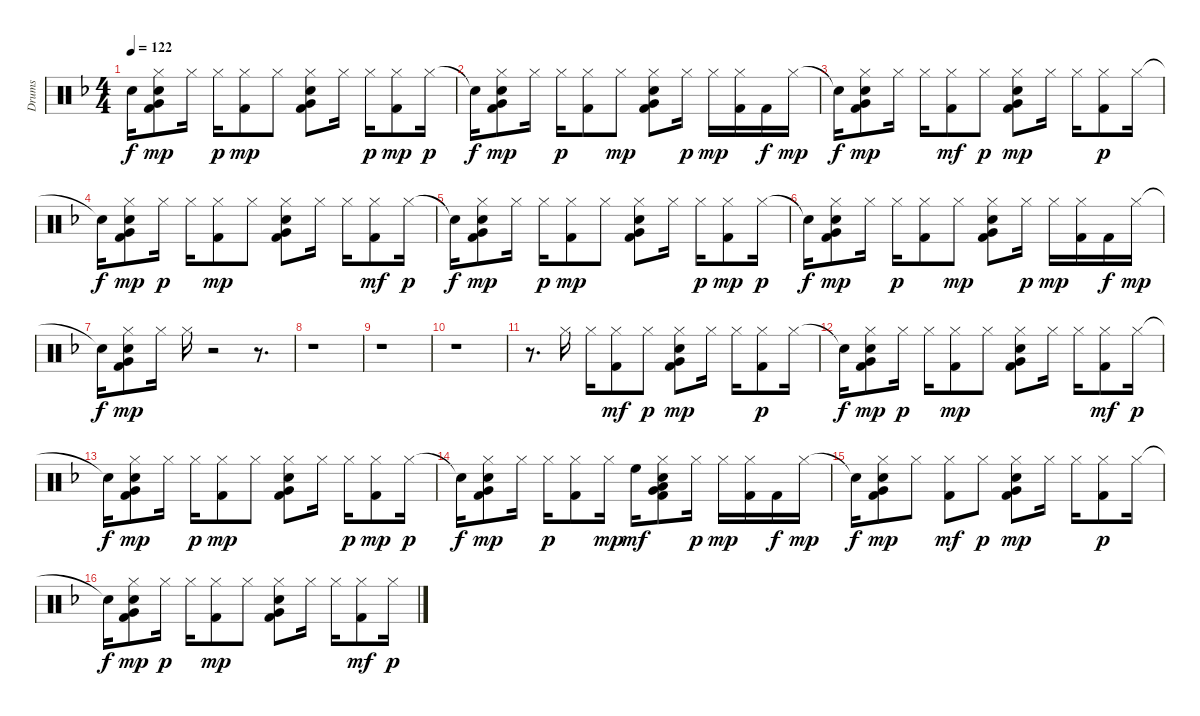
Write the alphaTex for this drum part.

\track ("Drums" "Drums") {instrument percussion}
\staff {score}
\articulation defaults
\ts (4 4)
\tempo 122
\clef neutral
\ks f "Snare (hit)"{t}.16{dy f}
("Kick (hit) 2" "Snare (hit) 2" "Hi-Hat (closed)" "Very Low Tom (hit)").8{dy mp} "Hi-Hat (closed)".16 "Hi-Hat (closed)".16{dy p} ("Kick (hit) 2" "Hi-Hat (closed)").8{dy mp} "Hi-Hat (closed)".8 ("Kick (hit) 2" "Snare (hit) 2" "Hi-Hat (closed)" "Very Low Tom (hit)").8 "Hi-Hat (closed)".16 "Hi-Hat (closed)".16{dy p} ("Kick (hit) 2" "Hi-Hat (closed)").8{dy mp} "Hi-Hat (closed)".16{dy p} |
"Snare (hit)"{t}.16{dy f} ("Kick (hit) 2" "Snare (hit) 2" "Hi-Hat (closed)" "Very Low Tom (hit)").8{dy mp} "Hi-Hat (closed)".16 "Hi-Hat (closed)".16{dy p} ("Kick (hit) 2" "Hi-Hat (closed)").8 "Hi-Hat (closed)".8{dy mp} ("Kick (hit) 2" "Snare (hit) 2" "Hi-Hat (closed)" "Very Low Tom (hit)").8 "Hi-Hat (closed)".16{dy p} "Hi-Hat (closed)".16{dy mp} ("Kick (hit) 2" "Hi-Hat (closed)").16 "Kick (hit) 2".16{dy f} "Hi-Hat (closed)".16{dy mp} |
"Snare (hit)"{t}.16{dy f} ("Kick (hit) 2" "Snare (hit) 2" "Hi-Hat (closed)" "Very Low Tom (hit)").8{dy mp} "Hi-Hat (closed)".16 "Hi-Hat (closed)".16 ("Kick (hit) 2" "Hi-Hat (closed)").8{dy mf} "Hi-Hat (closed)".8{dy p} ("Kick (hit) 2" "Snare (hit) 2" "Hi-Hat (closed)" "Very Low Tom (hit)").8{dy mp} "Hi-Hat (closed)".16 "Hi-Hat (closed)".16 ("Kick (hit) 2" "Hi-Hat (closed)").8{dy p} "Hi-Hat (closed)".16 |
"Snare (hit)"{t}.16{dy f} ("Kick (hit) 2" "Snare (hit) 2" "Hi-Hat (closed)" "Very Low Tom (hit)").8{dy mp} "Hi-Hat (closed)".16{dy p} "Hi-Hat (closed)".16 ("Kick (hit) 2" "Hi-Hat (closed)").8{dy mp} "Hi-Hat (closed)".8 ("Kick (hit) 2" "Snare (hit) 2" "Hi-Hat (closed)" "Very Low Tom (hit)").8 "Hi-Hat (closed)".16 "Hi-Hat (closed)".16 ("Kick (hit) 2" "Hi-Hat (closed)").8{dy mf} "Hi-Hat (closed)".16{dy p} |
"Snare (hit)"{t}.16{dy f} ("Kick (hit) 2" "Snare (hit) 2" "Hi-Hat (closed)" "Very Low Tom (hit)").8{dy mp} "Hi-Hat (closed)".16 "Hi-Hat (closed)".16{dy p} ("Kick (hit) 2" "Hi-Hat (closed)").8{dy mp} "Hi-Hat (closed)".8 ("Kick (hit) 2" "Snare (hit) 2" "Hi-Hat (closed)" "Very Low Tom (hit)").8 "Hi-Hat (closed)".16 "Hi-Hat (closed)".16{dy p} ("Kick (hit) 2" "Hi-Hat (closed)").8{dy mp} "Hi-Hat (closed)".16{dy p} |
"Snare (hit)"{t}.16{dy f} ("Kick (hit) 2" "Snare (hit) 2" "Hi-Hat (closed)" "Very Low Tom (hit)").8{dy mp} "Hi-Hat (closed)".16 "Hi-Hat (closed)".16{dy p} ("Kick (hit) 2" "Hi-Hat (closed)").8 "Hi-Hat (closed)".8{dy mp} ("Kick (hit) 2" "Snare (hit) 2" "Hi-Hat (closed)" "Very Low Tom (hit)").8 "Hi-Hat (closed)".16{dy p} "Hi-Hat (closed)".16{dy mp} ("Kick (hit) 2" "Hi-Hat (closed)").16 "Kick (hit) 2".16{dy f} "Hi-Hat (closed)".16{dy mp} |
"Snare (hit)"{t}.16{dy f} ("Kick (hit) 2" "Snare (hit) 2" "Hi-Hat (closed)" "Very Low Tom (hit)").8{dy mp} "Hi-Hat (closed)".16 "Hi-Hat (closed)".16 r.2 r.8{d} |
r.1 |
r.1 |
r.1 |
r.8{d} "Hi-Hat (closed)".16 "Hi-Hat (closed)".16 ("Kick (hit) 2" "Hi-Hat (closed)").8{dy mf} "Hi-Hat (closed)".8{dy p} ("Kick (hit) 2" "Snare (hit) 2" "Hi-Hat (closed)" "Very Low Tom (hit)").8{dy mp} "Hi-Hat (closed)".16 "Hi-Hat (closed)".16 ("Kick (hit) 2" "Hi-Hat (closed)").8{dy p} "Hi-Hat (closed)".16 |
"Snare (hit)"{t}.16{dy f} ("Kick (hit) 2" "Snare (hit) 2" "Hi-Hat (closed)" "Very Low Tom (hit)").8{dy mp} "Hi-Hat (closed)".16{dy p} "Hi-Hat (closed)".16 ("Kick (hit) 2" "Hi-Hat (closed)").8{dy mp} "Hi-Hat (closed)".8 ("Kick (hit) 2" "Snare (hit) 2" "Hi-Hat (closed)" "Very Low Tom (hit)").8 "Hi-Hat (closed)".16 "Hi-Hat (closed)".16 ("Kick (hit) 2" "Hi-Hat (closed)").8{dy mf} "Hi-Hat (closed)".16{dy p} |
"Snare (hit)"{t}.16{dy f} ("Kick (hit) 2" "Snare (hit) 2" "Hi-Hat (closed)" "Very Low Tom (hit)").8{dy mp} "Hi-Hat (closed)".16 "Hi-Hat (closed)".16{dy p} ("Kick (hit) 2" "Hi-Hat (closed)").8{dy mp} "Hi-Hat (closed)".8 ("Kick (hit) 2" "Snare (hit) 2" "Hi-Hat (closed)" "Very Low Tom (hit)").8 "Hi-Hat (closed)".16 "Hi-Hat (closed)".16{dy p} ("Kick (hit) 2" "Hi-Hat (closed)").8{dy mp} "Hi-Hat (closed)".16{dy p} |
"Snare (hit)"{t}.16{dy f} ("Kick (hit) 2" "Snare (hit) 2" "Hi-Hat (closed)" "Very Low Tom (hit)").8{dy mp} "Hi-Hat (closed)".16 "Hi-Hat (closed)".16{dy p} ("Kick (hit) 2" "Hi-Hat (closed)").8 "Hi-Hat (closed)".16{dy mp} "High Floor Tom (hit)".16{dy mf} ("Kick (hit) 2" "Snare (hit) 2" "Hi-Hat (closed)" "Very Low Tom (hit)" "Low Tom (hit)").8 "Hi-Hat (closed)".16{dy p} "Hi-Hat (closed)".16{dy mp} ("Kick (hit) 2" "Hi-Hat (closed)").16 "Kick (hit) 2".16{dy f} "Hi-Hat (closed)".16{dy mp} |
"Snare (hit)"{t}.16{dy f} ("Kick (hit) 2" "Snare (hit) 2" "Hi-Hat (closed)" "Very Low Tom (hit)").8{dy mp} "Hi-Hat (closed)".8 ("Kick (hit) 2" "Hi-Hat (closed)").8{dy mf} "Hi-Hat (closed)".8{dy p} ("Kick (hit) 2" "Snare (hit) 2" "Hi-Hat (closed)" "Very Low Tom (hit)").8{dy mp} "Hi-Hat (closed)".16 "Hi-Hat (closed)".16 ("Kick (hit) 2" "Hi-Hat (closed)").8{dy p} "Hi-Hat (closed)".16 |
"Snare (hit)"{t}.16{dy f} ("Kick (hit) 2" "Snare (hit) 2" "Hi-Hat (closed)" "Very Low Tom (hit)").8{dy mp} "Hi-Hat (closed)".16{dy p} "Hi-Hat (closed)".16 ("Kick (hit) 2" "Hi-Hat (closed)").8{dy mp} "Hi-Hat (closed)".8 ("Kick (hit) 2" "Snare (hit) 2" "Hi-Hat (closed)" "Very Low Tom (hit)").8 "Hi-Hat (closed)".16 "Hi-Hat (closed)".16 ("Kick (hit) 2" "Hi-Hat (closed)").8{dy mf} "Hi-Hat (closed)".16{dy p}
